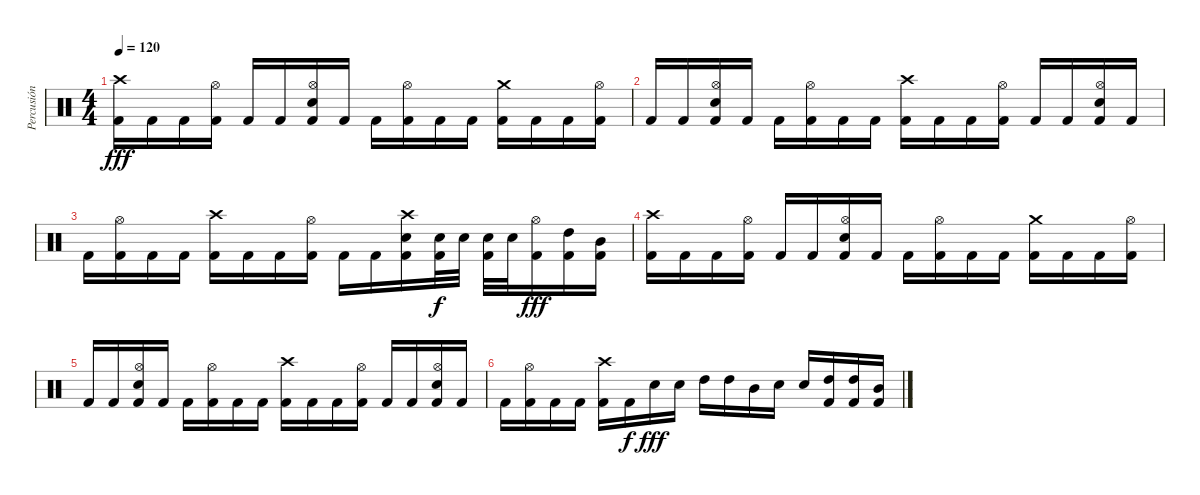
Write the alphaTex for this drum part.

\track ("Percusión" "Percusión") {instrument percussion}
\staff {score}
\articulation defaults
\ts (4 4)
\tempo 120
\clef neutral
\ks c
("Crash high (hit)" "Kick (hit) 2").16{dy fff} "Kick (hit) 2".16 "Kick (hit) 2".16 ("Hi-Hat (open)" "Kick (hit) 2").16 "Kick (hit) 2".16 "Kick (hit) 2".16 ("Hi-Hat (open)" "Electric Snare (hit)" "Kick (hit) 2").16 "Kick (hit) 2".16 "Kick (hit) 2".16 ("Hi-Hat (open)" "Kick (hit) 2").16 "Kick (hit) 2".16 "Kick (hit) 2".16 ("Crash medium (hit)" "Kick (hit) 2").16 "Kick (hit) 2".16 "Kick (hit) 2".16 ("Hi-Hat (open)" "Kick (hit) 2").16 |
"Kick (hit) 2".16 "Kick (hit) 2".16 ("Hi-Hat (open)" "Electric Snare (hit)" "Kick (hit) 2").16 "Kick (hit) 2".16 "Kick (hit) 2".16 ("Hi-Hat (open)" "Kick (hit) 2").16 "Kick (hit) 2".16 "Kick (hit) 2".16 ("Crash high (hit)" "Kick (hit) 2").16 "Kick (hit) 2".16 "Kick (hit) 2".16 ("Hi-Hat (open)" "Kick (hit) 2").16 "Kick (hit) 2".16 "Kick (hit) 2".16 ("Hi-Hat (open)" "Electric Snare (hit)" "Kick (hit) 2").16 "Kick (hit) 2".16 |
"Kick (hit) 2".16 ("Hi-Hat (open)" "Kick (hit) 2").16 "Kick (hit) 2".16 "Kick (hit) 2".16 ("Crash high (hit)" "Kick (hit) 2").16 "Kick (hit) 2".16 "Kick (hit) 2".16 ("Hi-Hat (open)" "Kick (hit) 2").16 "Kick (hit) 2".16 "Kick (hit) 2".16 ("Crash high (hit)" "Electric Snare (hit)" "Kick (hit) 2").16 ("Electric Snare (hit)" "Kick (hit) 2").32{dy f} "Electric Snare (hit)".32 ("Electric Snare (hit)" "Kick (hit) 2").32 "Electric Snare (hit)".32 ("Hi-Hat (open)" "Kick (hit) 2").16{dy fff} ("High Tom (hit)" "Kick (hit) 2").16 ("Mid Tom (hit)" "Kick (hit) 2").16 |
("Crash high (hit)" "Kick (hit) 2").16 "Kick (hit) 2".16 "Kick (hit) 2".16 ("Hi-Hat (open)" "Kick (hit) 2").16 "Kick (hit) 2".16 "Kick (hit) 2".16 ("Hi-Hat (open)" "Electric Snare (hit)" "Kick (hit) 2").16 "Kick (hit) 2".16 "Kick (hit) 2".16 ("Hi-Hat (open)" "Kick (hit) 2").16 "Kick (hit) 2".16 "Kick (hit) 2".16 ("Crash medium (hit)" "Kick (hit) 2").16 "Kick (hit) 2".16 "Kick (hit) 2".16 ("Hi-Hat (open)" "Kick (hit) 2").16 |
"Kick (hit) 2".16 "Kick (hit) 2".16 ("Hi-Hat (open)" "Electric Snare (hit)" "Kick (hit) 2").16 "Kick (hit) 2".16 "Kick (hit) 2".16 ("Hi-Hat (open)" "Kick (hit) 2").16 "Kick (hit) 2".16 "Kick (hit) 2".16 ("Crash high (hit)" "Kick (hit) 2").16 "Kick (hit) 2".16 "Kick (hit) 2".16 ("Hi-Hat (open)" "Kick (hit) 2").16 "Kick (hit) 2".16 "Kick (hit) 2".16 ("Hi-Hat (open)" "Electric Snare (hit)" "Kick (hit) 2").16 "Kick (hit) 2".16 |
"Kick (hit) 2".16 ("Hi-Hat (open)" "Kick (hit) 2").16 "Kick (hit) 2".16 "Kick (hit) 2".16 ("Crash high (hit)" "Kick (hit) 2").16 "Kick (hit) 2".16{dy f} "Electric Snare (hit)".16{dy fff} "Electric Snare (hit)".16 "High Tom (hit)".16 "High Tom (hit)".16 "Mid Tom (hit)".16 "Electric Snare (hit)".16 "Electric Snare (hit)".16 ("High Tom (hit)" "Kick (hit) 2").16 ("High Tom (hit)" "Kick (hit) 2").16 ("Mid Tom (hit)" "Kick (hit) 2").16
